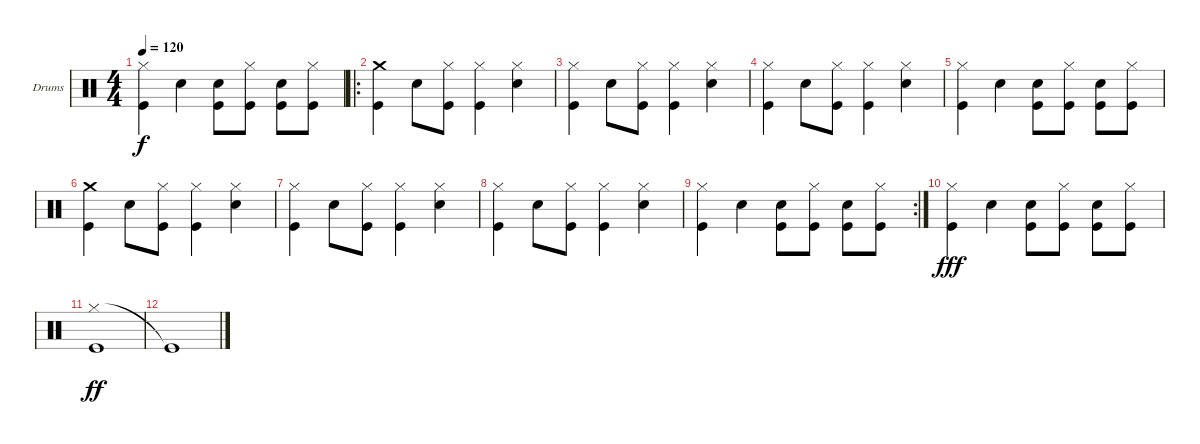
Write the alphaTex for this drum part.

\defaultSystemsLayout 4
\bracketExtendMode groupsimilarinstruments
\firstSystemTrackNameOrientation horizontal
\otherSystemsTrackNameOrientation horizontal
\track ("Aleksei Lyubavin" "Drums") {instrument percussion}
\staff {score}
\articulation defaults
\ts (4 4)
\tempo 120
\clef neutral
\ks c
("Hi-Hat (closed)" "Kick (hit)").4{dy f} "Snare (hit) 2".4 ("Kick (hit)" "Snare (hit) 2").8 ("Hi-Hat (closed)" "Kick (hit)").8 ("Kick (hit)" "Snare (hit) 2").8 ("Hi-Hat (closed)" "Kick (hit)").8 |
\ro
("Crash medium (hit)" "Kick (hit)").4 "Snare (hit) 2".8 ("Hi-Hat (closed)" "Kick (hit)").8 ("Hi-Hat (closed)" "Kick (hit)").4 ("Hi-Hat (closed)" "Snare (hit) 2").4 |
("Hi-Hat (closed)" "Kick (hit)").4 "Snare (hit) 2".8 ("Hi-Hat (closed)" "Kick (hit)").8 ("Hi-Hat (closed)" "Kick (hit)").4 ("Hi-Hat (closed)" "Snare (hit) 2").4 |
("Hi-Hat (closed)" "Kick (hit)").4 "Snare (hit) 2".8 ("Hi-Hat (closed)" "Kick (hit)").8 ("Hi-Hat (closed)" "Kick (hit)").4 ("Hi-Hat (closed)" "Snare (hit) 2").4 |
("Hi-Hat (closed)" "Kick (hit)").4 "Snare (hit) 2".4 ("Kick (hit)" "Snare (hit) 2").8 ("Hi-Hat (closed)" "Kick (hit)").8 ("Kick (hit)" "Snare (hit) 2").8 ("Hi-Hat (closed)" "Kick (hit)").8 |
("Crash medium (hit)" "Kick (hit)").4 "Snare (hit) 2".8 ("Hi-Hat (closed)" "Kick (hit)").8 ("Hi-Hat (closed)" "Kick (hit)").4 ("Hi-Hat (closed)" "Snare (hit) 2").4 |
("Hi-Hat (closed)" "Kick (hit)").4 "Snare (hit) 2".8 ("Hi-Hat (closed)" "Kick (hit)").8 ("Hi-Hat (closed)" "Kick (hit)").4 ("Hi-Hat (closed)" "Snare (hit) 2").4 |
("Hi-Hat (closed)" "Kick (hit)").4 "Snare (hit) 2".8 ("Hi-Hat (closed)" "Kick (hit)").8 ("Hi-Hat (closed)" "Kick (hit)").4 ("Hi-Hat (closed)" "Snare (hit) 2").4 |
\rc 2
("Hi-Hat (closed)" "Kick (hit)").4 "Snare (hit) 2".4 ("Kick (hit)" "Snare (hit) 2").8 ("Hi-Hat (closed)" "Kick (hit)").8 ("Kick (hit)" "Snare (hit) 2").8 ("Hi-Hat (closed)" "Kick (hit)").8 |
("Hi-Hat (closed)" "Kick (hit)").4{dy fff} "Snare (hit) 2".4 ("Kick (hit)" "Snare (hit) 2").8 ("Hi-Hat (closed)" "Kick (hit)").8 ("Kick (hit)" "Snare (hit) 2").8 ("Hi-Hat (closed)" "Kick (hit)").8 |
("Hi-Hat (closed)" "Kick (hit)").1{dy ff} |
"Kick (hit)"{t}.1
